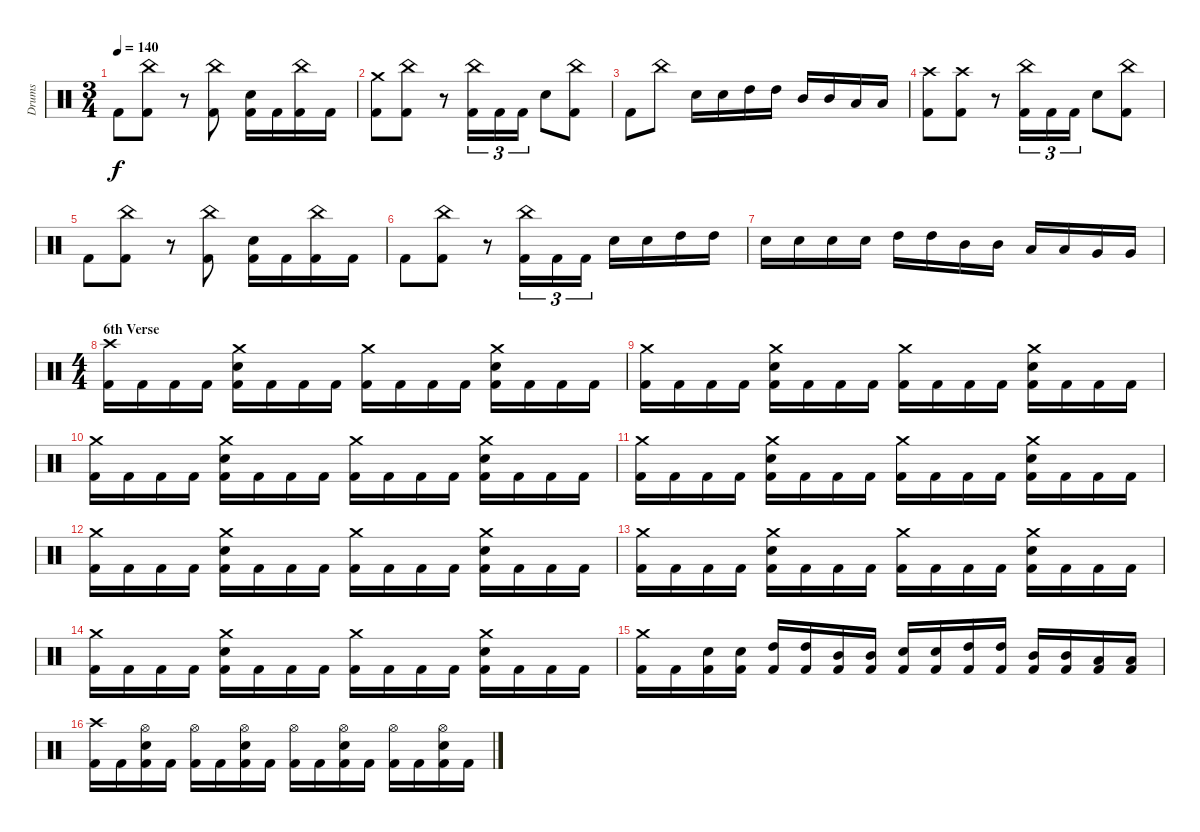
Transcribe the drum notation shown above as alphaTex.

\track ("Drums" "Drums") {instrument percussion}
\staff {score}
\articulation defaults
\ts (3 4)
\tempo 140
\clef neutral
\ks c "Kick (hit) 2".8{dy f}
("Kick (hit) 2" "China (hit)").8 r.8 ("Kick (hit) 2" "China (hit)").8 ("Kick (hit) 2" "Electric Snare (hit)").16 "Kick (hit) 2".16 ("Kick (hit) 2" "China (hit)").16 "Kick (hit) 2".16 |
("Kick (hit) 2" "Crash medium (hit)").8 ("Kick (hit) 2" "China (hit)").8 r.8 ("Kick (hit) 2" "China (hit)").16{tu (3 2)} "Kick (hit) 2".16{tu (3 2)} "Kick (hit) 2".16{tu (3 2)} "Electric Snare (hit)".8 ("Kick (hit) 2" "China (hit)").8 |
"Kick (hit) 2".8 "China (hit)".8 "Electric Snare (hit)".16 "Electric Snare (hit)".16 "High Tom (hit)".16 "High Tom (hit)".16 "Mid Tom (hit)".16 "Mid Tom (hit)".16 "Low Tom (hit)".16 "Low Tom (hit)".16 |
("Kick (hit) 2" "Crash high (hit)").8 ("Kick (hit) 2" "Crash high (hit)").8 r.8 ("Kick (hit) 2" "China (hit)").16{tu (3 2)} "Kick (hit) 2".16{tu (3 2)} "Kick (hit) 2".16{tu (3 2)} "Electric Snare (hit)".8 ("Kick (hit) 2" "China (hit)").8 |
"Kick (hit) 2".8 ("Kick (hit) 2" "China (hit)").8 r.8 ("Kick (hit) 2" "China (hit)").8 ("Kick (hit) 2" "Electric Snare (hit)").16 "Kick (hit) 2".16 ("Kick (hit) 2" "China (hit)").16 "Kick (hit) 2".16 |
"Kick (hit) 2".8 ("Kick (hit) 2" "China (hit)").8 r.8 ("Kick (hit) 2" "China (hit)").16{tu (3 2)} "Kick (hit) 2".16{tu (3 2)} "Kick (hit) 2".16{tu (3 2)} "Electric Snare (hit)".16 "Electric Snare (hit)".16 "High Tom (hit)".16 "High Tom (hit)".16 |
"Electric Snare (hit)".16 "Electric Snare (hit)".16 "Electric Snare (hit)".16 "Electric Snare (hit)".16 "High Tom (hit)".16 "High Tom (hit)".16 "Mid Tom (hit)".16 "Mid Tom (hit)".16 "Low Tom (hit)".16 "Low Tom (hit)".16 "Very Low Tom (hit)".16 "Very Low Tom (hit)".16 |
\ts (4 4)
\section ("" "6th Verse")
("Kick (hit) 2" "Crash high (hit)").16 "Kick (hit) 2".16 "Kick (hit) 2".16 "Kick (hit) 2".16 ("Kick (hit) 2" "Electric Snare (hit)" "Crash medium (hit)").16 "Kick (hit) 2".16 "Kick (hit) 2".16 "Kick (hit) 2".16 ("Kick (hit) 2" "Crash medium (hit)").16 "Kick (hit) 2".16 "Kick (hit) 2".16 "Kick (hit) 2".16 ("Kick (hit) 2" "Electric Snare (hit)" "Crash medium (hit)").16 "Kick (hit) 2".16 "Kick (hit) 2".16 "Kick (hit) 2".16 |
("Kick (hit) 2" "Crash medium (hit)").16 "Kick (hit) 2".16 "Kick (hit) 2".16 "Kick (hit) 2".16 ("Kick (hit) 2" "Electric Snare (hit)" "Crash medium (hit)").16 "Kick (hit) 2".16 "Kick (hit) 2".16 "Kick (hit) 2".16 ("Kick (hit) 2" "Crash medium (hit)").16 "Kick (hit) 2".16 "Kick (hit) 2".16 "Kick (hit) 2".16 ("Kick (hit) 2" "Electric Snare (hit)" "Crash medium (hit)").16 "Kick (hit) 2".16 "Kick (hit) 2".16 "Kick (hit) 2".16 |
("Kick (hit) 2" "Crash medium (hit)").16 "Kick (hit) 2".16 "Kick (hit) 2".16 "Kick (hit) 2".16 ("Kick (hit) 2" "Electric Snare (hit)" "Crash medium (hit)").16 "Kick (hit) 2".16 "Kick (hit) 2".16 "Kick (hit) 2".16 ("Kick (hit) 2" "Crash medium (hit)").16 "Kick (hit) 2".16 "Kick (hit) 2".16 "Kick (hit) 2".16 ("Kick (hit) 2" "Electric Snare (hit)" "Crash medium (hit)").16 "Kick (hit) 2".16 "Kick (hit) 2".16 "Kick (hit) 2".16 |
("Kick (hit) 2" "Crash medium (hit)").16 "Kick (hit) 2".16 "Kick (hit) 2".16 "Kick (hit) 2".16 ("Kick (hit) 2" "Electric Snare (hit)" "Crash medium (hit)").16 "Kick (hit) 2".16 "Kick (hit) 2".16 "Kick (hit) 2".16 ("Kick (hit) 2" "Crash medium (hit)").16 "Kick (hit) 2".16 "Kick (hit) 2".16 "Kick (hit) 2".16 ("Kick (hit) 2" "Electric Snare (hit)" "Crash medium (hit)").16 "Kick (hit) 2".16 "Kick (hit) 2".16 "Kick (hit) 2".16 |
("Kick (hit) 2" "Crash medium (hit)").16 "Kick (hit) 2".16 "Kick (hit) 2".16 "Kick (hit) 2".16 ("Kick (hit) 2" "Electric Snare (hit)" "Crash medium (hit)").16 "Kick (hit) 2".16 "Kick (hit) 2".16 "Kick (hit) 2".16 ("Kick (hit) 2" "Crash medium (hit)").16 "Kick (hit) 2".16 "Kick (hit) 2".16 "Kick (hit) 2".16 ("Kick (hit) 2" "Electric Snare (hit)" "Crash medium (hit)").16 "Kick (hit) 2".16 "Kick (hit) 2".16 "Kick (hit) 2".16 |
("Kick (hit) 2" "Crash medium (hit)").16 "Kick (hit) 2".16 "Kick (hit) 2".16 "Kick (hit) 2".16 ("Kick (hit) 2" "Electric Snare (hit)" "Crash medium (hit)").16 "Kick (hit) 2".16 "Kick (hit) 2".16 "Kick (hit) 2".16 ("Kick (hit) 2" "Crash medium (hit)").16 "Kick (hit) 2".16 "Kick (hit) 2".16 "Kick (hit) 2".16 ("Kick (hit) 2" "Electric Snare (hit)" "Crash medium (hit)").16 "Kick (hit) 2".16 "Kick (hit) 2".16 "Kick (hit) 2".16 |
("Kick (hit) 2" "Crash medium (hit)").16 "Kick (hit) 2".16 "Kick (hit) 2".16 "Kick (hit) 2".16 ("Kick (hit) 2" "Electric Snare (hit)" "Crash medium (hit)").16 "Kick (hit) 2".16 "Kick (hit) 2".16 "Kick (hit) 2".16 ("Kick (hit) 2" "Crash medium (hit)").16 "Kick (hit) 2".16 "Kick (hit) 2".16 "Kick (hit) 2".16 ("Kick (hit) 2" "Electric Snare (hit)" "Crash medium (hit)").16 "Kick (hit) 2".16 "Kick (hit) 2".16 "Kick (hit) 2".16 |
("Kick (hit) 2" "Crash medium (hit)").16 "Kick (hit) 2".16 ("Kick (hit) 2" "Electric Snare (hit)").16 ("Kick (hit) 2" "Electric Snare (hit)").16 ("Kick (hit) 2" "High Tom (hit)").16 ("Kick (hit) 2" "High Tom (hit)").16 ("Kick (hit) 2" "Mid Tom (hit)").16 ("Kick (hit) 2" "Mid Tom (hit)").16 ("Kick (hit) 2" "Electric Snare (hit)").16 ("Kick (hit) 2" "Electric Snare (hit)").16 ("Kick (hit) 2" "High Tom (hit)").16 ("Kick (hit) 2" "High Tom (hit)").16 ("Kick (hit) 2" "Mid Tom (hit)").16 ("Kick (hit) 2" "Mid Tom (hit)").16 ("Kick (hit) 2" "Low Tom (hit)").16 ("Kick (hit) 2" "Low Tom (hit)").16 |
("Kick (hit) 2" "Crash high (hit)").16 "Kick (hit) 2".16 ("Kick (hit) 2" "Electric Snare (hit)" "Hi-Hat (open)").16 "Kick (hit) 2".16 ("Kick (hit) 2" "Hi-Hat (open)").16 "Kick (hit) 2".16 ("Kick (hit) 2" "Electric Snare (hit)" "Hi-Hat (open)").16 "Kick (hit) 2".16 ("Kick (hit) 2" "Hi-Hat (open)").16 "Kick (hit) 2".16 ("Kick (hit) 2" "Electric Snare (hit)" "Hi-Hat (open)").16 "Kick (hit) 2".16 ("Kick (hit) 2" "Hi-Hat (open)").16 "Kick (hit) 2".16 ("Kick (hit) 2" "Electric Snare (hit)" "Hi-Hat (open)").16 "Kick (hit) 2".16
